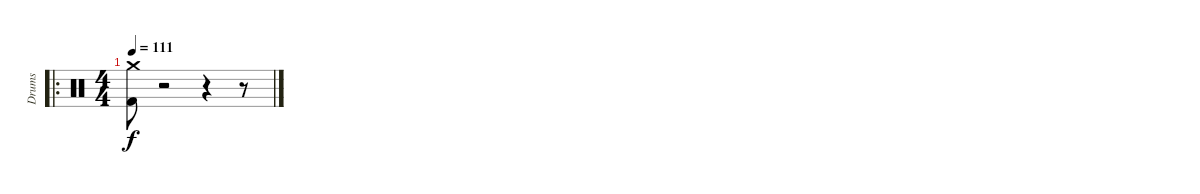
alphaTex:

\track ("Drums" "Drums") {instrument percussion}
\staff {score}
\articulation defaults
\ro
\ts (4 4)
\tempo 111
\clef neutral
\ks c
("Crash medium (hit)" "Kick (hit) 2").8{dy f} r.2 r.4 r.8
